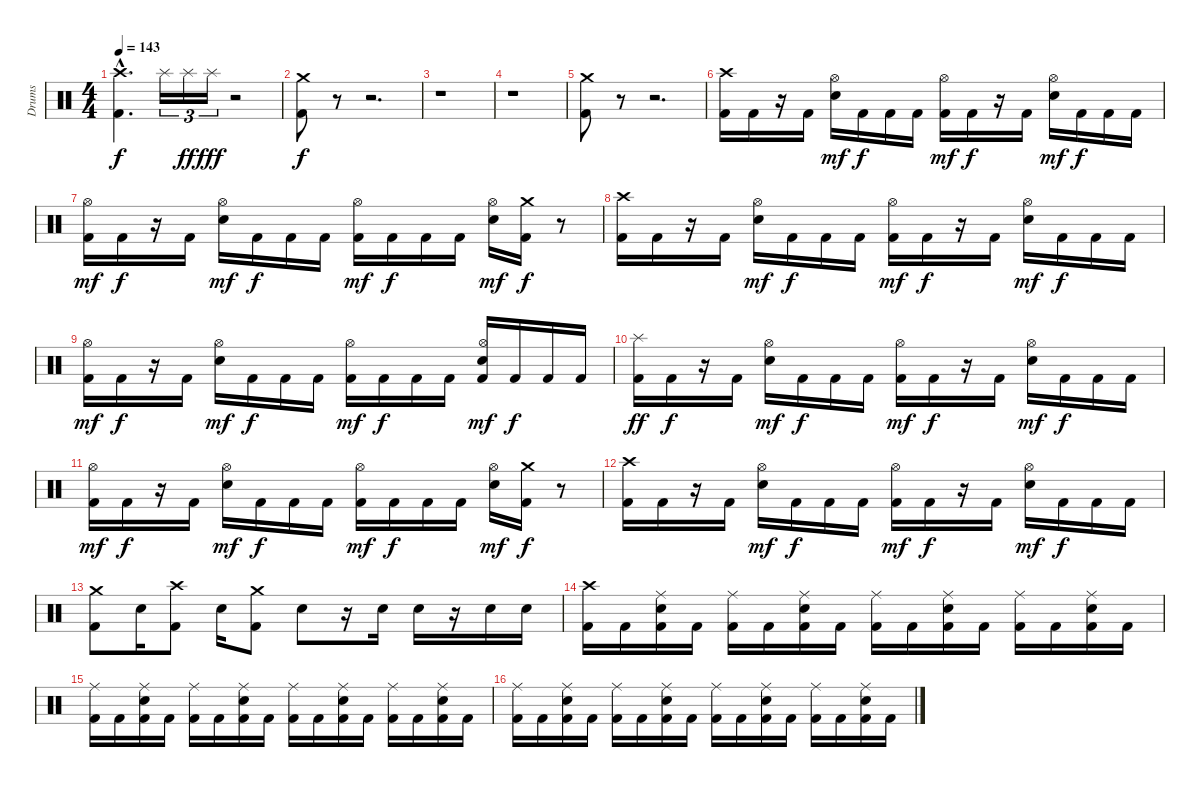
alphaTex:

\track ("Drums" "Drums") {instrument percussion}
\staff {score}
\articulation defaults
\ts (4 4)
\tempo 143
\clef neutral
\ks c
("Crash high (hit)"{hac} "Kick (hit) 2"{hac}).4{d dy f} "Splash (hit)".16{tu (3 2)} "Splash (hit)".16{tu (3 2) dy ff} "Splash (hit)".16{tu (3 2) dy fff} r.2 |
("Crash medium (hit)" "Kick (hit) 2").8{dy f} r.8 r.2{d} |
r.1 |
r.1 |
("Crash medium (hit)" "Kick (hit) 2").8 r.8 r.2{d} |
("Crash high (hit)" "Kick (hit) 2").16 "Kick (hit) 2".16 r.16 "Kick (hit) 2".16 ("Hi-Hat (open)" "Electric Snare (hit)").16{dy mf} "Kick (hit) 2".16{dy f} "Kick (hit) 2".16 "Kick (hit) 2".16 ("Hi-Hat (open)" "Kick (hit) 2").16{dy mf} "Kick (hit) 2".16{dy f} r.16 "Kick (hit) 2".16 ("Hi-Hat (open)" "Electric Snare (hit)").16{dy mf} "Kick (hit) 2".16{dy f} "Kick (hit) 2".16 "Kick (hit) 2".16 |
("Hi-Hat (open)" "Kick (hit) 2").16{dy mf} "Kick (hit) 2".16{dy f} r.16 "Kick (hit) 2".16 ("Hi-Hat (open)" "Electric Snare (hit)").16{dy mf} "Kick (hit) 2".16{dy f} "Kick (hit) 2".16 "Kick (hit) 2".16 ("Hi-Hat (open)" "Kick (hit) 2").16{dy mf} "Kick (hit) 2".16{dy f} "Kick (hit) 2".16 "Kick (hit) 2".16 ("Hi-Hat (open)" "Electric Snare (hit)").16{dy mf} ("Crash medium (hit)" "Kick (hit) 2").16{dy f} r.8 |
("Crash high (hit)" "Kick (hit) 2").16 "Kick (hit) 2".16 r.16 "Kick (hit) 2".16 ("Hi-Hat (open)" "Electric Snare (hit)").16{dy mf} "Kick (hit) 2".16{dy f} "Kick (hit) 2".16 "Kick (hit) 2".16 ("Hi-Hat (open)" "Kick (hit) 2").16{dy mf} "Kick (hit) 2".16{dy f} r.16 "Kick (hit) 2".16 ("Hi-Hat (open)" "Electric Snare (hit)").16{dy mf} "Kick (hit) 2".16{dy f} "Kick (hit) 2".16 "Kick (hit) 2".16 |
("Hi-Hat (open)" "Kick (hit) 2").16{dy mf} "Kick (hit) 2".16{dy f} r.16 "Kick (hit) 2".16 ("Hi-Hat (open)" "Electric Snare (hit)").16{dy mf} "Kick (hit) 2".16{dy f} "Kick (hit) 2".16 "Kick (hit) 2".16 ("Hi-Hat (open)" "Kick (hit) 2").16{dy mf} "Kick (hit) 2".16{dy f} "Kick (hit) 2".16 "Kick (hit) 2".16 ("Hi-Hat (open)" "Electric Snare (hit)" "Kick (hit) 2").16{dy mf} "Kick (hit) 2".16{dy f} "Kick (hit) 2".16 "Kick (hit) 2".16 |
("Splash (hit)" "Kick (hit) 2").16{dy ff} "Kick (hit) 2".16{dy f} r.16 "Kick (hit) 2".16 ("Hi-Hat (open)" "Electric Snare (hit)").16{dy mf} "Kick (hit) 2".16{dy f} "Kick (hit) 2".16 "Kick (hit) 2".16 ("Hi-Hat (open)" "Kick (hit) 2").16{dy mf} "Kick (hit) 2".16{dy f} r.16 "Kick (hit) 2".16 ("Hi-Hat (open)" "Electric Snare (hit)").16{dy mf} "Kick (hit) 2".16{dy f} "Kick (hit) 2".16 "Kick (hit) 2".16 |
("Hi-Hat (open)" "Kick (hit) 2").16{dy mf} "Kick (hit) 2".16{dy f} r.16 "Kick (hit) 2".16 ("Hi-Hat (open)" "Electric Snare (hit)").16{dy mf} "Kick (hit) 2".16{dy f} "Kick (hit) 2".16 "Kick (hit) 2".16 ("Hi-Hat (open)" "Kick (hit) 2").16{dy mf} "Kick (hit) 2".16{dy f} "Kick (hit) 2".16 "Kick (hit) 2".16 ("Hi-Hat (open)" "Electric Snare (hit)").16{dy mf} ("Crash medium (hit)" "Kick (hit) 2").16{dy f} r.8 |
("Crash high (hit)" "Kick (hit) 2").16 "Kick (hit) 2".16 r.16 "Kick (hit) 2".16 ("Hi-Hat (open)" "Electric Snare (hit)").16{dy mf} "Kick (hit) 2".16{dy f} "Kick (hit) 2".16 "Kick (hit) 2".16 ("Hi-Hat (open)" "Kick (hit) 2").16{dy mf} "Kick (hit) 2".16{dy f} r.16 "Kick (hit) 2".16 ("Hi-Hat (open)" "Electric Snare (hit)").16{dy mf} "Kick (hit) 2".16{dy f} "Kick (hit) 2".16 "Kick (hit) 2".16 |
("Crash medium (hit)" "Kick (hit) 2").8 "Electric Snare (hit)".16 ("Crash high (hit)" "Kick (hit) 2").8 "Electric Snare (hit)".16 ("Crash medium (hit)" "Kick (hit) 2").8 "Electric Snare (hit)".8 r.16 "Electric Snare (hit)".16 "Electric Snare (hit)".16 r.16 "Electric Snare (hit)".16 "Electric Snare (hit)".16 |
("Crash high (hit)" "Kick (hit) 2").16 "Kick (hit) 2".16 ("Ride (middle)" "Electric Snare (hit)" "Kick (hit) 2").16 "Kick (hit) 2".16 ("Ride (middle)" "Kick (hit) 2").16 "Kick (hit) 2".16 ("Ride (middle)" "Electric Snare (hit)" "Kick (hit) 2").16 "Kick (hit) 2".16 ("Ride (middle)" "Kick (hit) 2").16 "Kick (hit) 2".16 ("Ride (middle)" "Electric Snare (hit)" "Kick (hit) 2").16 "Kick (hit) 2".16 ("Ride (middle)" "Kick (hit) 2").16 "Kick (hit) 2".16 ("Ride (middle)" "Electric Snare (hit)" "Kick (hit) 2").16 "Kick (hit) 2".16 |
("Ride (middle)" "Kick (hit) 2").16 "Kick (hit) 2".16 ("Ride (middle)" "Electric Snare (hit)" "Kick (hit) 2").16 "Kick (hit) 2".16 ("Ride (middle)" "Kick (hit) 2").16 "Kick (hit) 2".16 ("Ride (middle)" "Electric Snare (hit)" "Kick (hit) 2").16 "Kick (hit) 2".16 ("Ride (middle)" "Kick (hit) 2").16 "Kick (hit) 2".16 ("Ride (middle)" "Electric Snare (hit)" "Kick (hit) 2").16 "Kick (hit) 2".16 ("Ride (middle)" "Kick (hit) 2").16 "Kick (hit) 2".16 ("Ride (middle)" "Electric Snare (hit)" "Kick (hit) 2").16 "Kick (hit) 2".16 |
("Ride (middle)" "Kick (hit) 2").16 "Kick (hit) 2".16 ("Ride (middle)" "Electric Snare (hit)" "Kick (hit) 2").16 "Kick (hit) 2".16 ("Ride (middle)" "Kick (hit) 2").16 "Kick (hit) 2".16 ("Ride (middle)" "Electric Snare (hit)" "Kick (hit) 2").16 "Kick (hit) 2".16 ("Ride (middle)" "Kick (hit) 2").16 "Kick (hit) 2".16 ("Ride (middle)" "Electric Snare (hit)" "Kick (hit) 2").16 "Kick (hit) 2".16 ("Ride (middle)" "Kick (hit) 2").16 "Kick (hit) 2".16 ("Ride (middle)" "Electric Snare (hit)" "Kick (hit) 2").16 "Kick (hit) 2".16
